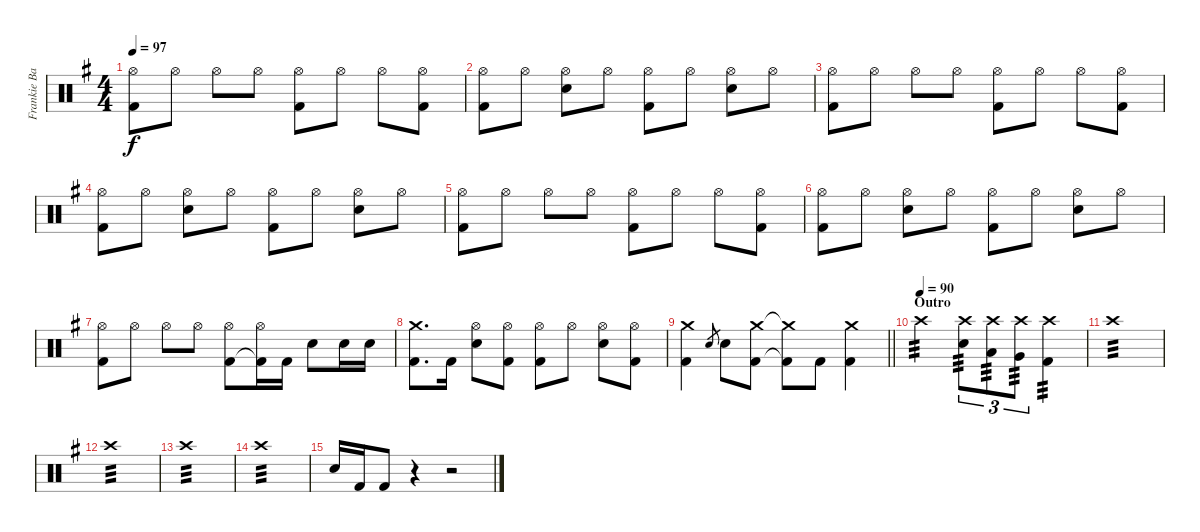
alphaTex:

\track ("Frankie Banali" "Frankie Ba") {instrument percussion}
\staff {score}
\articulation defaults
\ts (4 4)
\tempo 97
\clef neutral
\ks g
("Hi-Hat (open)" "Kick (hit) 2").8{dy f} "Hi-Hat (open)".8 "Hi-Hat (open)".8 "Hi-Hat (open)".8 ("Hi-Hat (open)" "Kick (hit) 2").8 "Hi-Hat (open)".8 "Hi-Hat (open)".8 ("Hi-Hat (open)" "Kick (hit) 2").8 |
("Hi-Hat (open)" "Kick (hit) 2").8 "Hi-Hat (open)".8 ("Hi-Hat (open)" "Snare (hit) 2").8 "Hi-Hat (open)".8 ("Hi-Hat (open)" "Kick (hit) 2").8 "Hi-Hat (open)".8 ("Hi-Hat (open)" "Snare (hit) 2").8 "Hi-Hat (open)".8 |
("Hi-Hat (open)" "Kick (hit) 2").8 "Hi-Hat (open)".8 "Hi-Hat (open)".8 "Hi-Hat (open)".8 ("Hi-Hat (open)" "Kick (hit) 2").8 "Hi-Hat (open)".8 "Hi-Hat (open)".8 ("Hi-Hat (open)" "Kick (hit) 2").8 |
("Hi-Hat (open)" "Kick (hit) 2").8 "Hi-Hat (open)".8 ("Hi-Hat (open)" "Snare (hit) 2").8 "Hi-Hat (open)".8 ("Hi-Hat (open)" "Kick (hit) 2").8 "Hi-Hat (open)".8 ("Hi-Hat (open)" "Snare (hit) 2").8 "Hi-Hat (open)".8 |
("Hi-Hat (open)" "Kick (hit) 2").8 "Hi-Hat (open)".8 "Hi-Hat (open)".8 "Hi-Hat (open)".8 ("Hi-Hat (open)" "Kick (hit) 2").8 "Hi-Hat (open)".8 "Hi-Hat (open)".8 ("Hi-Hat (open)" "Kick (hit) 2").8 |
("Hi-Hat (open)" "Kick (hit) 2").8 "Hi-Hat (open)".8 ("Hi-Hat (open)" "Snare (hit) 2").8 "Hi-Hat (open)".8 ("Hi-Hat (open)" "Kick (hit) 2").8 "Hi-Hat (open)".8 ("Hi-Hat (open)" "Snare (hit) 2").8 "Hi-Hat (open)".8 |
("Hi-Hat (open)" "Kick (hit) 2").8 "Hi-Hat (open)".8 "Hi-Hat (open)".8 "Hi-Hat (open)".8 ("Hi-Hat (open)" "Kick (hit) 2").8 ("Hi-Hat (open)" "Kick (hit) 2"{t}).16 "Kick (hit) 2".16 "Snare (hit) 2".8 "Snare (hit) 2".16 "Snare (hit) 2".16 |
("Crash medium (hit)" "Kick (hit) 2").8{d} "Kick (hit) 2".16 ("Hi-Hat (open)" "Snare (hit) 2").8 ("Hi-Hat (open)" "Kick (hit) 2").8 ("Hi-Hat (open)" "Kick (hit) 2").8 "Hi-Hat (open)".8 ("Hi-Hat (open)" "Snare (hit) 2").8 ("Hi-Hat (open)" "Kick (hit) 2").8 |
\barLineRight lightlight
("Crash medium (hit)" "Kick (hit) 2").4 "Snare (hit) 2".8{gr} "Snare (hit) 2".8 ("Crash medium (hit)" "Kick (hit) 2").8 ("Crash medium (hit)"{t} "Kick (hit) 2"{t}).8 "Kick (hit) 2".8 ("Crash medium (hit)" "Kick (hit) 2").4 |
\section ("" "Outro")
\tempo (90)
"Crash high (hit)".2{tp 3} ("Crash high (hit)" "Snare (hit) 2").8{tu (3 2) tp 3} ("Crash high (hit)" "Low Tom (hit)").8{tu (3 2) tp 3} ("Crash high (hit)" "Very Low Tom (hit)").8{tu (3 2) tp 3} ("Crash high (hit)" "Kick (hit) 2").4{tp 3} |
"Crash high (hit)".1{tp 3} |
"Crash high (hit)".1{tp 3} |
"Crash high (hit)".1{tp 3} |
"Crash high (hit)".1{tp 3} |
"Snare (hit) 2".16 "Kick (hit) 2".16 "Kick (hit) 2".8 r.4 r.2
